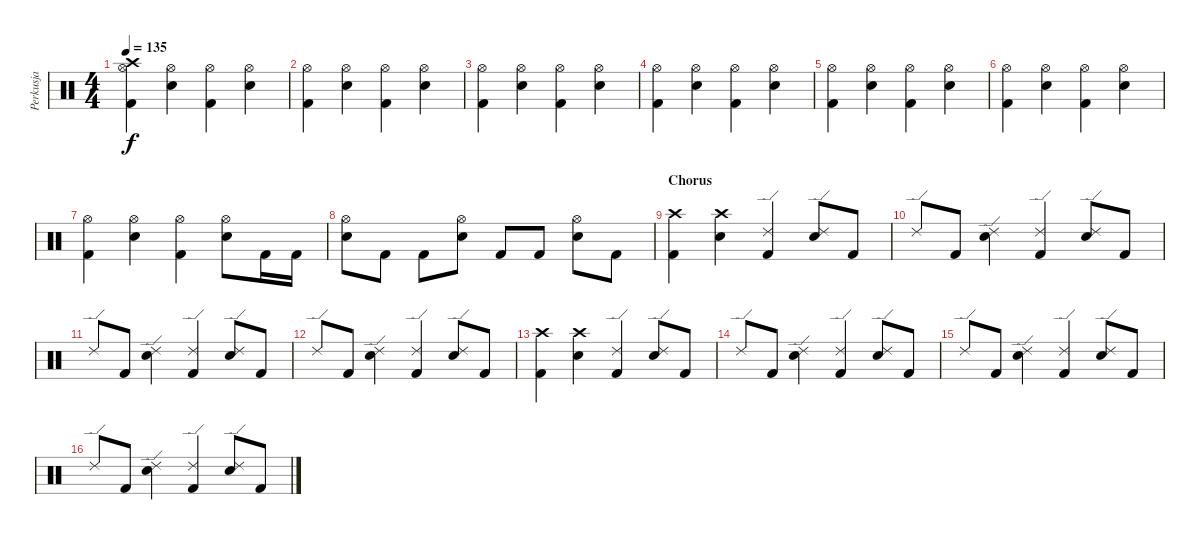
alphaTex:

\track ("Perkusja" "Perkusja") {instrument percussion}
\staff {score}
\articulation defaults
\ts (4 4)
\tempo 135
\clef neutral
\ks c
("Kick (hit) 2" "Hi-Hat (open)" "Crash high (hit)").4{dy f} ("Electric Snare (hit)" "Hi-Hat (open)").4 ("Kick (hit) 2" "Hi-Hat (open)").4 ("Electric Snare (hit)" "Hi-Hat (open)").4 |
("Kick (hit) 2" "Hi-Hat (open)").4 ("Electric Snare (hit)" "Hi-Hat (open)").4 ("Kick (hit) 2" "Hi-Hat (open)").4 ("Electric Snare (hit)" "Hi-Hat (open)").4 |
("Kick (hit) 2" "Hi-Hat (open)").4 ("Electric Snare (hit)" "Hi-Hat (open)").4 ("Kick (hit) 2" "Hi-Hat (open)").4 ("Electric Snare (hit)" "Hi-Hat (open)").4 |
("Kick (hit) 2" "Hi-Hat (open)").4 ("Electric Snare (hit)" "Hi-Hat (open)").4 ("Kick (hit) 2" "Hi-Hat (open)").4 ("Electric Snare (hit)" "Hi-Hat (open)").4 |
("Kick (hit) 2" "Hi-Hat (open)").4 ("Electric Snare (hit)" "Hi-Hat (open)").4 ("Kick (hit) 2" "Hi-Hat (open)").4 ("Electric Snare (hit)" "Hi-Hat (open)").4 |
("Kick (hit) 2" "Hi-Hat (open)").4 ("Electric Snare (hit)" "Hi-Hat (open)").4 ("Kick (hit) 2" "Hi-Hat (open)").4 ("Electric Snare (hit)" "Hi-Hat (open)").4 |
("Kick (hit) 2" "Hi-Hat (open)").4 ("Electric Snare (hit)" "Hi-Hat (open)").4 ("Kick (hit) 2" "Hi-Hat (open)").4 ("Electric Snare (hit)" "Hi-Hat (open)").8 "Kick (hit) 2".16 "Kick (hit) 2".16 |
("Electric Snare (hit)" "Hi-Hat (open)").8 "Kick (hit) 2".8 "Kick (hit) 2".8 ("Electric Snare (hit)" "Hi-Hat (open)").8 "Kick (hit) 2".8 "Kick (hit) 2".8 ("Electric Snare (hit)" "Hi-Hat (open)").8 "Kick (hit) 2".8 |
\section ("" "Chorus")
("Kick (hit) 2" "Crash high (hit)").4 ("Electric Snare (hit)" "Crash high (hit)").4 ("Kick (hit) 2" "Ride (edge) 2").4 ("Electric Snare (hit)" "Ride (edge) 2").8 "Kick (hit) 2".8 |
"Ride (edge) 2".8 "Kick (hit) 2".8 ("Electric Snare (hit)" "Ride (edge) 2").4 ("Kick (hit) 2" "Ride (edge) 2").4 ("Electric Snare (hit)" "Ride (edge) 2").8 "Kick (hit) 2".8 |
"Ride (edge) 2".8 "Kick (hit) 2".8 ("Electric Snare (hit)" "Ride (edge) 2").4 ("Kick (hit) 2" "Ride (edge) 2").4 ("Electric Snare (hit)" "Ride (edge) 2").8 "Kick (hit) 2".8 |
"Ride (edge) 2".8 "Kick (hit) 2".8 ("Electric Snare (hit)" "Ride (edge) 2").4 ("Kick (hit) 2" "Ride (edge) 2").4 ("Electric Snare (hit)" "Ride (edge) 2").8 "Kick (hit) 2".8 |
("Kick (hit) 2" "Crash high (hit)").4 ("Electric Snare (hit)" "Crash high (hit)").4 ("Kick (hit) 2" "Ride (edge) 2").4 ("Electric Snare (hit)" "Ride (edge) 2").8 "Kick (hit) 2".8 |
"Ride (edge) 2".8 "Kick (hit) 2".8 ("Electric Snare (hit)" "Ride (edge) 2").4 ("Kick (hit) 2" "Ride (edge) 2").4 ("Electric Snare (hit)" "Ride (edge) 2").8 "Kick (hit) 2".8 |
"Ride (edge) 2".8 "Kick (hit) 2".8 ("Electric Snare (hit)" "Ride (edge) 2").4 ("Kick (hit) 2" "Ride (edge) 2").4 ("Electric Snare (hit)" "Ride (edge) 2").8 "Kick (hit) 2".8 |
"Ride (edge) 2".8 "Kick (hit) 2".8 ("Electric Snare (hit)" "Ride (edge) 2").4 ("Kick (hit) 2" "Ride (edge) 2").4 ("Electric Snare (hit)" "Ride (edge) 2").8 "Kick (hit) 2".8
